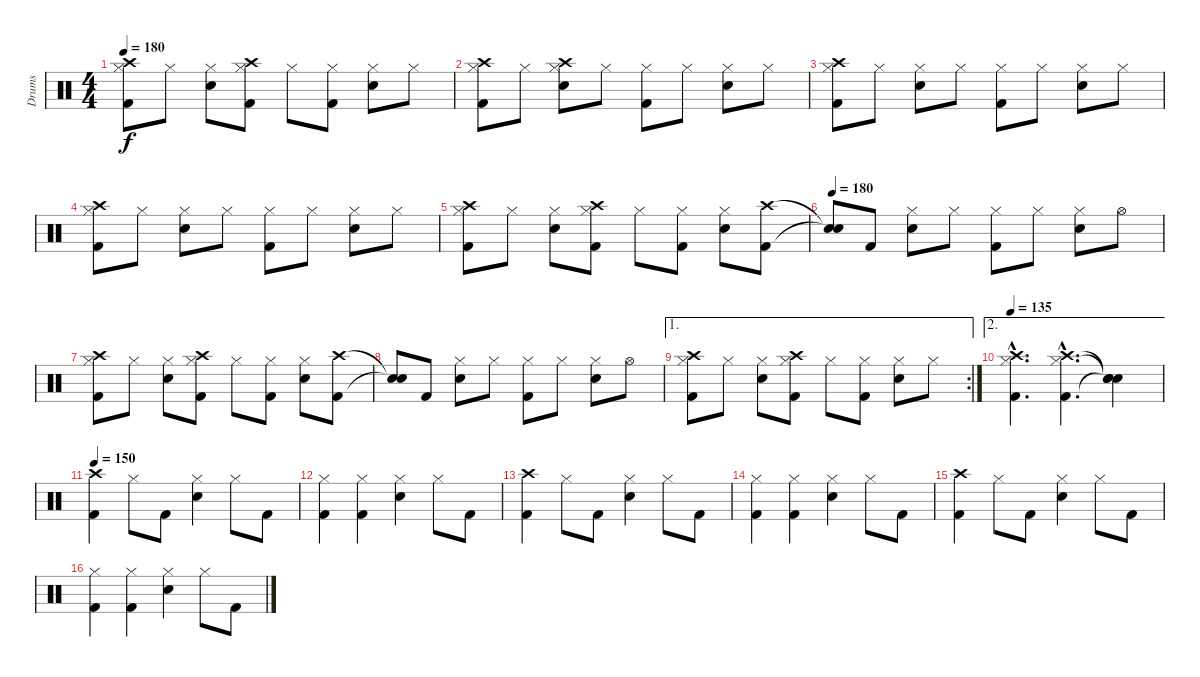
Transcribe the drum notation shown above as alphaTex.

\track ("Drums" "Drums") {instrument percussion}
\staff {score}
\articulation defaults
\ts (4 4)
\tempo 180
\clef neutral
\ks c
("Hi-Hat (closed)" "Kick (hit) 2" "Crash high (hit)").8{dy f} "Hi-Hat (closed)".8 ("Hi-Hat (closed)" "Snare (hit) 2").8 ("Hi-Hat (closed)" "Kick (hit) 2" "Crash high (hit)").8 "Hi-Hat (closed)".8 ("Hi-Hat (closed)" "Kick (hit) 2").8 ("Hi-Hat (closed)" "Snare (hit) 2").8 "Hi-Hat (closed)".8 |
("Hi-Hat (closed)" "Kick (hit) 2" "Crash high (hit)").8 "Hi-Hat (closed)".8 ("Hi-Hat (closed)" "Snare (hit) 2" "Crash high (hit)").8 "Hi-Hat (closed)".8 ("Hi-Hat (closed)" "Kick (hit) 2").8 "Hi-Hat (closed)".8 ("Hi-Hat (closed)" "Snare (hit) 2").8 "Hi-Hat (closed)".8 |
("Hi-Hat (closed)" "Kick (hit) 2" "Crash high (hit)").8 "Hi-Hat (closed)".8 ("Hi-Hat (closed)" "Snare (hit) 2").8 "Hi-Hat (closed)".8 ("Hi-Hat (closed)" "Kick (hit) 2").8 "Hi-Hat (closed)".8 ("Hi-Hat (closed)" "Snare (hit) 2").8 "Hi-Hat (closed)".8 |
("Hi-Hat (closed)" "Kick (hit) 2" "Crash high (hit)").8 "Hi-Hat (closed)".8 ("Hi-Hat (closed)" "Snare (hit) 2").8 "Hi-Hat (closed)".8 ("Hi-Hat (closed)" "Kick (hit) 2").8 "Hi-Hat (closed)".8 ("Hi-Hat (closed)" "Snare (hit) 2").8 "Hi-Hat (closed)".8 |
("Kick (hit) 2" "Hi-Hat (closed)" "Crash high (hit)").8 "Hi-Hat (closed)".8 ("Snare (hit) 2" "Hi-Hat (closed)").8 ("Kick (hit) 2" "Hi-Hat (closed)" "Crash high (hit)").8 "Hi-Hat (closed)".8 ("Kick (hit) 2" "Hi-Hat (closed)").8 ("Snare (hit) 2" "Hi-Hat (closed)").8 ("Kick (hit) 2" "Crash high (hit)").8 |
\tempo 180
("Snare (hit)"{t} "Snare (hit)"{t}).8 "Kick (hit) 2".8 ("Snare (hit) 2" "Hi-Hat (closed)").8 "Hi-Hat (closed)".8 ("Kick (hit) 2" "Hi-Hat (closed)").8 "Hi-Hat (closed)".8 ("Snare (hit) 2" "Hi-Hat (closed)").8 "Hi-Hat (open)".8 |
("Kick (hit) 2" "Hi-Hat (closed)" "Crash high (hit)").8 "Hi-Hat (closed)".8 ("Snare (hit) 2" "Hi-Hat (closed)").8 ("Kick (hit) 2" "Hi-Hat (closed)" "Crash high (hit)").8 "Hi-Hat (closed)".8 ("Kick (hit) 2" "Hi-Hat (closed)").8 ("Snare (hit) 2" "Hi-Hat (closed)").8 ("Kick (hit) 2" "Crash high (hit)").8 |
("Snare (hit)"{t} "Snare (hit)"{t}).8 "Kick (hit) 2".8 ("Snare (hit) 2" "Hi-Hat (closed)").8 "Hi-Hat (closed)".8 ("Kick (hit) 2" "Hi-Hat (closed)").8 "Hi-Hat (closed)".8 ("Snare (hit) 2" "Hi-Hat (closed)").8 "Hi-Hat (open)".8 |
\ae 1
\rc 2
("Kick (hit) 2" "Hi-Hat (closed)" "Crash high (hit)").8 "Hi-Hat (closed)".8 ("Snare (hit) 2" "Hi-Hat (closed)").8 ("Kick (hit) 2" "Hi-Hat (closed)" "Crash high (hit)").8 "Hi-Hat (closed)".8 ("Kick (hit) 2" "Hi-Hat (closed)").8 ("Snare (hit) 2" "Hi-Hat (closed)").8 "Hi-Hat (closed)".8 |
\ae 2
\tempo 135
("Kick (hit) 2"{hac} "Hi-Hat (closed)"{hac} "Crash high (hit)"{hac}).4{d} ("Kick (hit) 2"{hac} "Hi-Hat (closed)"{hac} "Crash high (hit)"{hac}).4{d} ("Snare (hit)"{t} "Snare (hit)"{t} "Snare (hit)"{t}).4 |
\tempo 150
("Kick (hit) 2" "Crash high (hit)").4 "Hi-Hat (closed)".8 "Kick (hit) 2".8 ("Snare (hit) 2" "Hi-Hat (closed)").4 "Hi-Hat (closed)".8 "Kick (hit) 2".8 |
("Kick (hit) 2" "Hi-Hat (closed)").4 ("Kick (hit) 2" "Hi-Hat (closed)").4 ("Snare (hit) 2" "Hi-Hat (closed)").4 "Hi-Hat (closed)".8 "Kick (hit) 2".8 |
("Kick (hit) 2" "Crash high (hit)").4 "Hi-Hat (closed)".8 "Kick (hit) 2".8 ("Snare (hit) 2" "Hi-Hat (closed)").4 "Hi-Hat (closed)".8 "Kick (hit) 2".8 |
("Kick (hit) 2" "Hi-Hat (closed)").4 ("Kick (hit) 2" "Hi-Hat (closed)").4 ("Snare (hit) 2" "Hi-Hat (closed)").4 "Hi-Hat (closed)".8 "Kick (hit) 2".8 |
("Kick (hit) 2" "Crash high (hit)").4 "Hi-Hat (closed)".8 "Kick (hit) 2".8 ("Snare (hit) 2" "Hi-Hat (closed)").4 "Hi-Hat (closed)".8 "Kick (hit) 2".8 |
("Kick (hit) 2" "Hi-Hat (closed)").4 ("Kick (hit) 2" "Hi-Hat (closed)").4 ("Snare (hit) 2" "Hi-Hat (closed)").4 "Hi-Hat (closed)".8 "Kick (hit) 2".8
